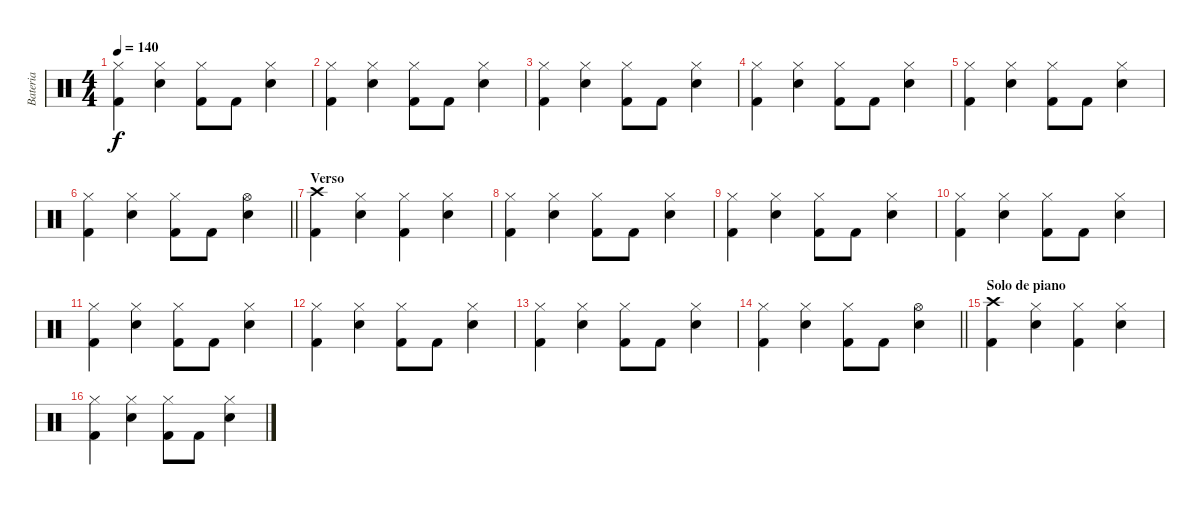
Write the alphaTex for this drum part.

\track ("Bateria" "Bateria") {instrument percussion}
\staff {score}
\articulation defaults
\ts (4 4)
\tempo 140
\clef neutral
\ks c
("Hi-Hat (closed)" "Kick (hit) 2").4{dy f} ("Hi-Hat (closed)" "Electric Snare (hit)").4 ("Hi-Hat (closed)" "Kick (hit) 2").8 "Kick (hit) 2".8 ("Hi-Hat (closed)" "Electric Snare (hit)").4 |
("Hi-Hat (closed)" "Kick (hit) 2").4 ("Hi-Hat (closed)" "Electric Snare (hit)").4 ("Hi-Hat (closed)" "Kick (hit) 2").8 "Kick (hit) 2".8 ("Hi-Hat (closed)" "Electric Snare (hit)").4 |
("Hi-Hat (closed)" "Kick (hit) 2").4 ("Hi-Hat (closed)" "Electric Snare (hit)").4 ("Hi-Hat (closed)" "Kick (hit) 2").8 "Kick (hit) 2".8 ("Hi-Hat (closed)" "Electric Snare (hit)").4 |
("Hi-Hat (closed)" "Kick (hit) 2").4 ("Hi-Hat (closed)" "Electric Snare (hit)").4 ("Hi-Hat (closed)" "Kick (hit) 2").8 "Kick (hit) 2".8 ("Hi-Hat (closed)" "Electric Snare (hit)").4 |
("Hi-Hat (closed)" "Kick (hit) 2").4 ("Hi-Hat (closed)" "Electric Snare (hit)").4 ("Hi-Hat (closed)" "Kick (hit) 2").8 "Kick (hit) 2".8 ("Hi-Hat (closed)" "Electric Snare (hit)").4 |
\barLineRight lightlight
("Hi-Hat (closed)" "Kick (hit) 2").4 ("Hi-Hat (closed)" "Electric Snare (hit)").4 ("Hi-Hat (closed)" "Kick (hit) 2").8 "Kick (hit) 2".8 ("Hi-Hat (open)" "Electric Snare (hit)").4 |
\section ("" "Verso")
("Crash high (hit)" "Kick (hit) 2").4 ("Hi-Hat (closed)" "Electric Snare (hit)").4 ("Hi-Hat (closed)" "Kick (hit) 2").4 ("Hi-Hat (closed)" "Electric Snare (hit)").4 |
("Hi-Hat (closed)" "Kick (hit) 2").4 ("Hi-Hat (closed)" "Electric Snare (hit)").4 ("Hi-Hat (closed)" "Kick (hit) 2").8 "Kick (hit) 2".8 ("Hi-Hat (closed)" "Electric Snare (hit)").4 |
("Hi-Hat (closed)" "Kick (hit) 2").4 ("Hi-Hat (closed)" "Electric Snare (hit)").4 ("Hi-Hat (closed)" "Kick (hit) 2").8 "Kick (hit) 2".8 ("Hi-Hat (closed)" "Electric Snare (hit)").4 |
("Hi-Hat (closed)" "Kick (hit) 2").4 ("Hi-Hat (closed)" "Electric Snare (hit)").4 ("Hi-Hat (closed)" "Kick (hit) 2").8 "Kick (hit) 2".8 ("Hi-Hat (closed)" "Electric Snare (hit)").4 |
("Hi-Hat (closed)" "Kick (hit) 2").4 ("Hi-Hat (closed)" "Electric Snare (hit)").4 ("Hi-Hat (closed)" "Kick (hit) 2").8 "Kick (hit) 2".8 ("Hi-Hat (closed)" "Electric Snare (hit)").4 |
("Hi-Hat (closed)" "Kick (hit) 2").4 ("Hi-Hat (closed)" "Electric Snare (hit)").4 ("Hi-Hat (closed)" "Kick (hit) 2").8 "Kick (hit) 2".8 ("Hi-Hat (closed)" "Electric Snare (hit)").4 |
("Hi-Hat (closed)" "Kick (hit) 2").4 ("Hi-Hat (closed)" "Electric Snare (hit)").4 ("Hi-Hat (closed)" "Kick (hit) 2").8 "Kick (hit) 2".8 ("Hi-Hat (closed)" "Electric Snare (hit)").4 |
\barLineRight lightlight
("Hi-Hat (closed)" "Kick (hit) 2").4 ("Hi-Hat (closed)" "Electric Snare (hit)").4 ("Hi-Hat (closed)" "Kick (hit) 2").8 "Kick (hit) 2".8 ("Hi-Hat (open)" "Electric Snare (hit)").4 |
\section ("" "Solo de piano")
("Crash high (hit)" "Kick (hit) 2").4 ("Hi-Hat (closed)" "Electric Snare (hit)").4 ("Hi-Hat (closed)" "Kick (hit) 2").4 ("Hi-Hat (closed)" "Electric Snare (hit)").4 |
("Hi-Hat (closed)" "Kick (hit) 2").4 ("Hi-Hat (closed)" "Electric Snare (hit)").4 ("Hi-Hat (closed)" "Kick (hit) 2").8 "Kick (hit) 2".8 ("Hi-Hat (closed)" "Electric Snare (hit)").4
